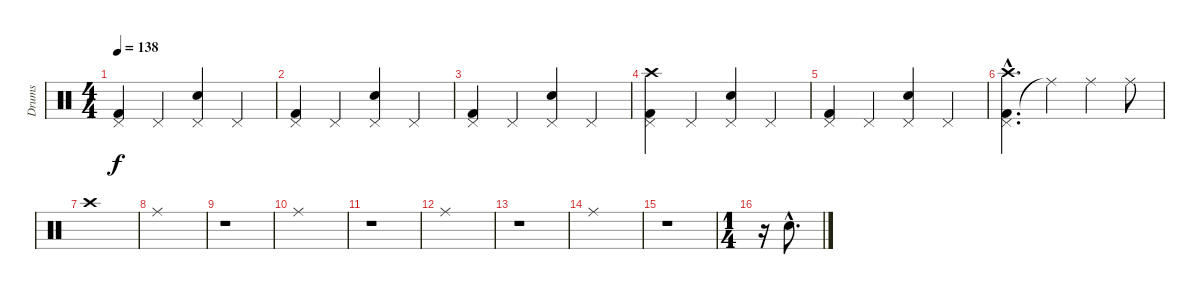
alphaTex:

\track ("Drums" "Drums") {instrument percussion}
\staff {score}
\articulation defaults
\ts (4 4)
\tempo 138
\clef neutral
\ks c
("Kick (hit) 2" "Pedal Hi-Hat (hit)").4{dy f} "Pedal Hi-Hat (hit)".4 ("Snare (hit) 2" "Pedal Hi-Hat (hit)").4 "Pedal Hi-Hat (hit)".4 |
("Kick (hit) 2" "Pedal Hi-Hat (hit)").4 "Pedal Hi-Hat (hit)".4 ("Snare (hit) 2" "Pedal Hi-Hat (hit)").4 "Pedal Hi-Hat (hit)".4 |
("Kick (hit) 2" "Pedal Hi-Hat (hit)").4 "Pedal Hi-Hat (hit)".4 ("Snare (hit) 2" "Pedal Hi-Hat (hit)").4 "Pedal Hi-Hat (hit)".4 |
("Kick (hit) 2" "Pedal Hi-Hat (hit)" "Crash high (hit)").4 "Pedal Hi-Hat (hit)".4 ("Snare (hit) 2" "Pedal Hi-Hat (hit)").4 "Pedal Hi-Hat (hit)".4 |
("Kick (hit) 2" "Pedal Hi-Hat (hit)").4 "Pedal Hi-Hat (hit)".4 ("Snare (hit) 2" "Pedal Hi-Hat (hit)").4 "Pedal Hi-Hat (hit)".4 |
("Kick (hit) 2"{hac} "Pedal Hi-Hat (hit)"{hac} "Crash high (hit)"{hac}).4{d} "Ride (middle)"{t}.4 "Ride (middle)".4 "Ride (middle)".8 |
"Crash high (hit)".1 |
"Ride (middle)".1 |
r.1 |
"Ride (middle)".1 |
r.1 |
"Ride (middle)".1 |
r.1 |
"Ride (middle)".1 |
r.1 |
\ts (1 4)
r.16 "Snare (hit) 2"{hac}.8{d}
